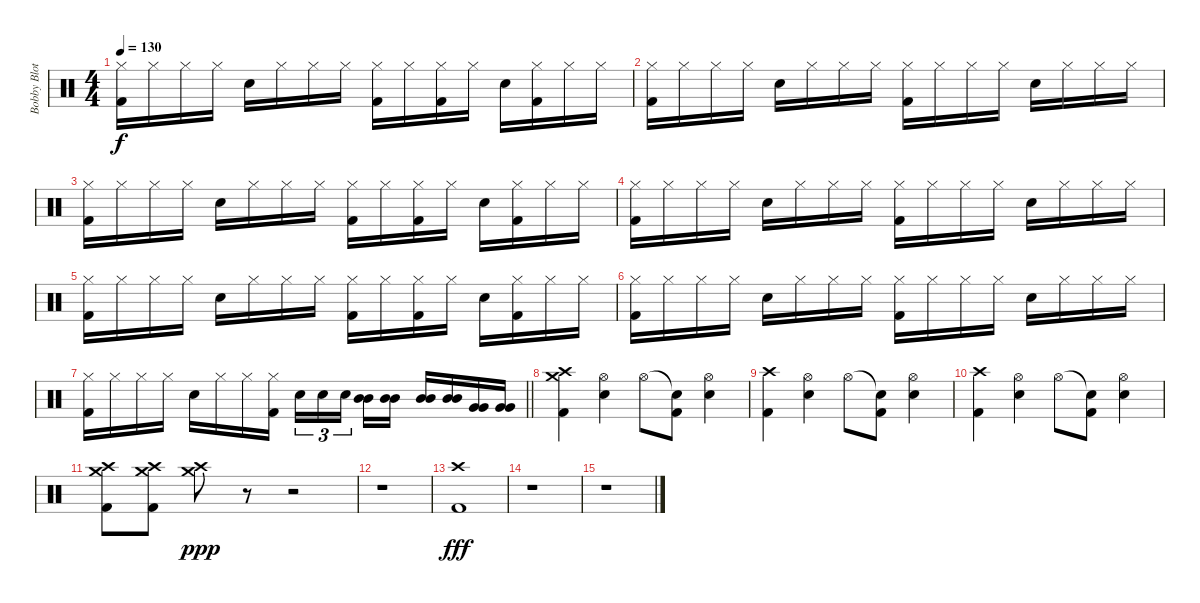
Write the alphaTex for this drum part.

\track ("Bobby Blotzer - Drums" "Bobby Blot") {instrument percussion}
\staff {score}
\articulation defaults
\ts (4 4)
\tempo 130
\clef neutral
\ks c
("Hi-Hat (closed)" "Kick (hit) 2").16{dy f} "Hi-Hat (closed)".16 "Hi-Hat (closed)".16 "Hi-Hat (closed)".16 "Snare (hit) 2".16 "Hi-Hat (closed)".16 "Hi-Hat (closed)".16 "Hi-Hat (closed)".16 ("Hi-Hat (closed)" "Kick (hit) 2").16 "Hi-Hat (closed)".16 ("Hi-Hat (closed)" "Kick (hit) 2").16 "Hi-Hat (closed)".16 "Snare (hit) 2".16 ("Hi-Hat (closed)" "Kick (hit) 2").16 "Hi-Hat (closed)".16 "Hi-Hat (closed)".16 |
("Hi-Hat (closed)" "Kick (hit) 2").16 "Hi-Hat (closed)".16 "Hi-Hat (closed)".16 "Hi-Hat (closed)".16 "Snare (hit) 2".16 "Hi-Hat (closed)".16 "Hi-Hat (closed)".16 "Hi-Hat (closed)".16 ("Hi-Hat (closed)" "Kick (hit) 2").16 "Hi-Hat (closed)".16 "Hi-Hat (closed)".16 "Hi-Hat (closed)".16 "Snare (hit) 2".16 "Hi-Hat (closed)".16 "Hi-Hat (closed)".16 "Hi-Hat (closed)".16 |
("Hi-Hat (closed)" "Kick (hit) 2").16 "Hi-Hat (closed)".16 "Hi-Hat (closed)".16 "Hi-Hat (closed)".16 "Snare (hit) 2".16 "Hi-Hat (closed)".16 "Hi-Hat (closed)".16 "Hi-Hat (closed)".16 ("Hi-Hat (closed)" "Kick (hit) 2").16 "Hi-Hat (closed)".16 ("Hi-Hat (closed)" "Kick (hit) 2").16 "Hi-Hat (closed)".16 "Snare (hit) 2".16 ("Hi-Hat (closed)" "Kick (hit) 2").16 "Hi-Hat (closed)".16 "Hi-Hat (closed)".16 |
("Hi-Hat (closed)" "Kick (hit) 2").16 "Hi-Hat (closed)".16 "Hi-Hat (closed)".16 "Hi-Hat (closed)".16 "Snare (hit) 2".16 "Hi-Hat (closed)".16 "Hi-Hat (closed)".16 "Hi-Hat (closed)".16 ("Hi-Hat (closed)" "Kick (hit) 2").16 "Hi-Hat (closed)".16 "Hi-Hat (closed)".16 "Hi-Hat (closed)".16 "Snare (hit) 2".16 "Hi-Hat (closed)".16 "Hi-Hat (closed)".16 "Hi-Hat (closed)".16 |
("Hi-Hat (closed)" "Kick (hit) 2").16 "Hi-Hat (closed)".16 "Hi-Hat (closed)".16 "Hi-Hat (closed)".16 "Snare (hit) 2".16 "Hi-Hat (closed)".16 "Hi-Hat (closed)".16 "Hi-Hat (closed)".16 ("Hi-Hat (closed)" "Kick (hit) 2").16 "Hi-Hat (closed)".16 ("Hi-Hat (closed)" "Kick (hit) 2").16 "Hi-Hat (closed)".16 "Snare (hit) 2".16 ("Hi-Hat (closed)" "Kick (hit) 2").16 "Hi-Hat (closed)".16 "Hi-Hat (closed)".16 |
("Hi-Hat (closed)" "Kick (hit) 2").16 "Hi-Hat (closed)".16 "Hi-Hat (closed)".16 "Hi-Hat (closed)".16 "Snare (hit) 2".16 "Hi-Hat (closed)".16 "Hi-Hat (closed)".16 "Hi-Hat (closed)".16 ("Hi-Hat (closed)" "Kick (hit) 2").16 "Hi-Hat (closed)".16 "Hi-Hat (closed)".16 "Hi-Hat (closed)".16 "Snare (hit) 2".16 "Hi-Hat (closed)".16 "Hi-Hat (closed)".16 "Hi-Hat (closed)".16 |
\barLineRight lightlight
("Hi-Hat (closed)" "Kick (hit) 2").16 "Hi-Hat (closed)".16 "Hi-Hat (closed)".16 "Hi-Hat (closed)".16 "Snare (hit) 2".16 "Hi-Hat (closed)".16 "Hi-Hat (closed)".16 ("Hi-Hat (closed)" "Kick (hit) 2").16 "Snare (hit) 2".16{tu (3 2)} "Snare (hit) 2".16{tu (3 2)} "Snare (hit) 2".16{tu (3 2) beam splitsecondary} ("Mid Tom (hit)" "Mid Tom (hit)").16 ("Mid Tom (hit)" "Mid Tom (hit)").16 ("Mid Tom (hit)" "Mid Tom (hit)").16 ("Mid Tom (hit)" "Mid Tom (hit)").16 ("Very Low Tom (hit)" "Very Low Tom (hit)").16 ("Very Low Tom (hit)" "Very Low Tom (hit)").16 |
("Crash medium (hit)" "Crash high (hit)" "Kick (hit) 2").4 ("Hi-Hat (open)" "Snare (hit) 2").4 "Hi-Hat (open)".8 ("Snare (hit)"{t} "Kick (hit) 2").8 ("Hi-Hat (open)" "Snare (hit) 2").4 |
("Crash high (hit)" "Kick (hit) 2").4 ("Hi-Hat (open)" "Snare (hit) 2").4 "Hi-Hat (open)".8 ("Snare (hit)"{t} "Kick (hit) 2").8 ("Hi-Hat (open)" "Snare (hit) 2").4 |
("Crash high (hit)" "Kick (hit) 2").4 ("Hi-Hat (open)" "Snare (hit) 2").4 "Hi-Hat (open)".8 ("Snare (hit)"{t} "Kick (hit) 2").8 ("Hi-Hat (open)" "Snare (hit) 2").4 |
("Crash medium (hit)" "Crash high (hit)" "Kick (hit) 2").8 ("Crash high (hit)" "Crash medium (hit)" "Kick (hit) 2").8 ("Crash medium (hit)" "Crash high (hit)").8{dy ppp} r.8 r.2 |
r.1 |
("Crash high (hit)" "Kick (hit) 2").1{dy fff} |
r.1 |
r.1
